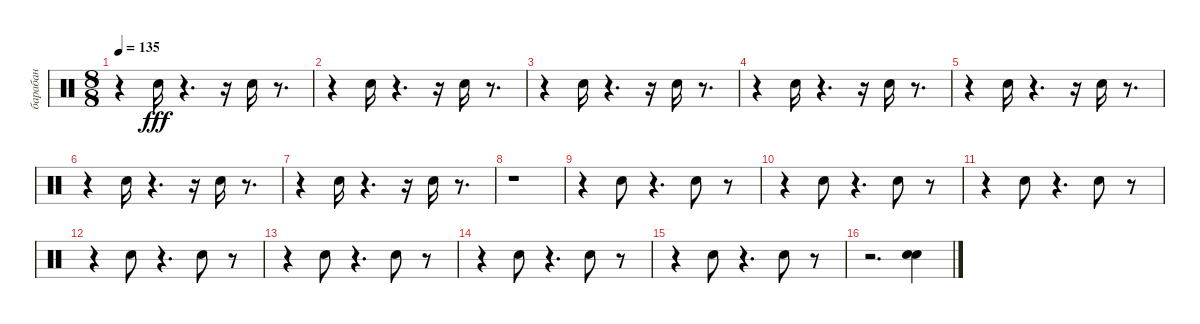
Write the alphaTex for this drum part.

\track ("барабан" "барабан") {instrument percussion}
\staff {score}
\articulation defaults
\ts (8 8)
\tempo 135
\clef neutral
\ks c
r.4{dy fff} "Snare (hit) 2".16 r.4{d} r.16 "Snare (hit) 2".16 r.8{d} |
r.4 "Snare (hit) 2".16 r.4{d} r.16 "Snare (hit) 2".16 r.8{d} |
r.4 "Snare (hit) 2".16 r.4{d} r.16 "Snare (hit) 2".16 r.8{d} |
r.4 "Snare (hit) 2".16 r.4{d} r.16 "Snare (hit) 2".16 r.8{d} |
r.4 "Snare (hit) 2".16 r.4{d} r.16 "Snare (hit) 2".16 r.8{d} |
r.4 "Snare (hit) 2".16 r.4{d} r.16 "Snare (hit) 2".16 r.8{d} |
r.4 "Snare (hit) 2".16 r.4{d} r.16 "Snare (hit) 2".16 r.8{d} |
r.1 |
r.4 "Snare (hit) 2".8 r.4{d} "Snare (hit) 2".8 r.8 |
r.4 "Snare (hit) 2".8 r.4{d} "Snare (hit) 2".8 r.8 |
r.4 "Snare (hit) 2".8 r.4{d} "Snare (hit) 2".8 r.8 |
r.4 "Snare (hit) 2".8 r.4{d} "Snare (hit) 2".8 r.8 |
r.4 "Snare (hit) 2".8 r.4{d} "Snare (hit) 2".8 r.8 |
r.4 "Snare (hit) 2".8 r.4{d} "Snare (hit) 2".8 r.8 |
r.4 "Snare (hit) 2".8 r.4{d} "Snare (hit) 2".8 r.8 |
r.2{d} ("Snare (hit) 2" "Snare (hit) 2").4
